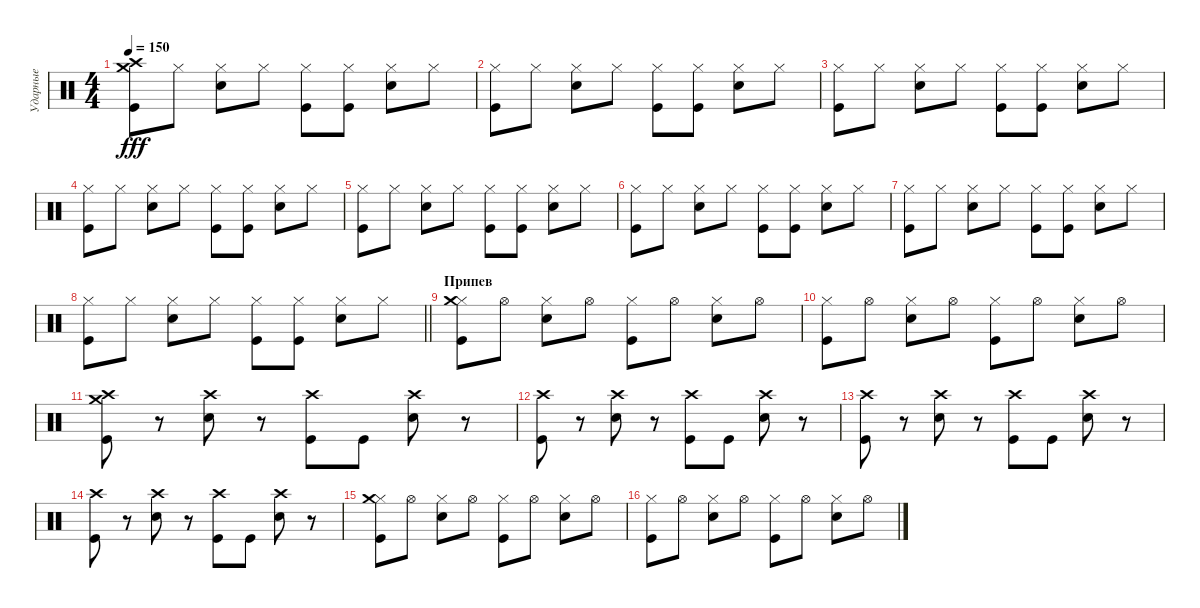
\track ("Ударные" "Ударные") {instrument percussion}
\staff {score}
\articulation defaults
\ts (4 4)
\tempo 150
\clef neutral
\ks c
("Crash medium (hit)" "Crash high (hit)" "Kick (hit)").8{dy fff} "Hi-Hat (closed)".8 ("Hi-Hat (closed)" "Electric Snare (hit)").8 "Hi-Hat (closed)".8 ("Hi-Hat (closed)" "Kick (hit)").8 ("Hi-Hat (closed)" "Kick (hit)").8 ("Hi-Hat (closed)" "Electric Snare (hit)").8 "Hi-Hat (closed)".8 |
("Hi-Hat (closed)" "Kick (hit)").8 "Hi-Hat (closed)".8 ("Hi-Hat (closed)" "Electric Snare (hit)").8 "Hi-Hat (closed)".8 ("Hi-Hat (closed)" "Kick (hit)").8 ("Hi-Hat (closed)" "Kick (hit)").8 ("Hi-Hat (closed)" "Electric Snare (hit)").8 "Hi-Hat (closed)".8 |
("Hi-Hat (closed)" "Kick (hit)").8 "Hi-Hat (closed)".8 ("Hi-Hat (closed)" "Electric Snare (hit)").8 "Hi-Hat (closed)".8 ("Hi-Hat (closed)" "Kick (hit)").8 ("Hi-Hat (closed)" "Kick (hit)").8 ("Hi-Hat (closed)" "Electric Snare (hit)").8 "Hi-Hat (closed)".8 |
("Hi-Hat (closed)" "Kick (hit)").8 "Hi-Hat (closed)".8 ("Hi-Hat (closed)" "Electric Snare (hit)").8 "Hi-Hat (closed)".8 ("Hi-Hat (closed)" "Kick (hit)").8 ("Hi-Hat (closed)" "Kick (hit)").8 ("Hi-Hat (closed)" "Electric Snare (hit)").8 "Hi-Hat (closed)".8 |
("Hi-Hat (closed)" "Kick (hit)").8 "Hi-Hat (closed)".8 ("Hi-Hat (closed)" "Electric Snare (hit)").8 "Hi-Hat (closed)".8 ("Hi-Hat (closed)" "Kick (hit)").8 ("Hi-Hat (closed)" "Kick (hit)").8 ("Hi-Hat (closed)" "Electric Snare (hit)").8 "Hi-Hat (closed)".8 |
("Hi-Hat (closed)" "Kick (hit)").8 "Hi-Hat (closed)".8 ("Hi-Hat (closed)" "Electric Snare (hit)").8 "Hi-Hat (closed)".8 ("Hi-Hat (closed)" "Kick (hit)").8 ("Hi-Hat (closed)" "Kick (hit)").8 ("Hi-Hat (closed)" "Electric Snare (hit)").8 "Hi-Hat (closed)".8 |
("Hi-Hat (closed)" "Kick (hit)").8 "Hi-Hat (closed)".8 ("Hi-Hat (closed)" "Electric Snare (hit)").8 "Hi-Hat (closed)".8 ("Hi-Hat (closed)" "Kick (hit)").8 ("Hi-Hat (closed)" "Kick (hit)").8 ("Hi-Hat (closed)" "Electric Snare (hit)").8 "Hi-Hat (closed)".8 |
\barLineRight lightlight
("Hi-Hat (closed)" "Kick (hit)").8 "Hi-Hat (closed)".8 ("Hi-Hat (closed)" "Electric Snare (hit)").8 "Hi-Hat (closed)".8 ("Hi-Hat (closed)" "Kick (hit)").8 ("Hi-Hat (closed)" "Kick (hit)").8 ("Hi-Hat (closed)" "Electric Snare (hit)").8 "Hi-Hat (closed)".8 |
\section ("" "Припев")
("Hi-Hat (closed)" "Kick (hit)" "Crash medium (hit)").8 "Hi-Hat (open)".8 ("Hi-Hat (closed)" "Electric Snare (hit)").8 "Hi-Hat (open)".8 ("Hi-Hat (closed)" "Kick (hit)").8 "Hi-Hat (open)".8 ("Hi-Hat (closed)" "Electric Snare (hit)").8 "Hi-Hat (open)".8 |
("Hi-Hat (closed)" "Kick (hit)").8 "Hi-Hat (open)".8 ("Hi-Hat (closed)" "Electric Snare (hit)").8 "Hi-Hat (open)".8 ("Hi-Hat (closed)" "Kick (hit)").8 "Hi-Hat (open)".8 ("Hi-Hat (closed)" "Electric Snare (hit)").8 "Hi-Hat (open)".8 |
("Crash high (hit)" "Kick (hit)" "Crash medium (hit)").8 r.8 ("Crash high (hit)" "Electric Snare (hit)").8 r.8 ("Crash high (hit)" "Kick (hit)").8 "Kick (hit)".8 ("Crash high (hit)" "Electric Snare (hit)").8 r.8 |
("Crash high (hit)" "Kick (hit)").8 r.8 ("Crash high (hit)" "Electric Snare (hit)").8 r.8 ("Crash high (hit)" "Kick (hit)").8 "Kick (hit)".8 ("Crash high (hit)" "Electric Snare (hit)").8 r.8 |
("Crash high (hit)" "Kick (hit)").8 r.8 ("Crash high (hit)" "Electric Snare (hit)").8 r.8 ("Crash high (hit)" "Kick (hit)").8 "Kick (hit)".8 ("Crash high (hit)" "Electric Snare (hit)").8 r.8 |
("Crash high (hit)" "Kick (hit)").8 r.8 ("Crash high (hit)" "Electric Snare (hit)").8 r.8 ("Crash high (hit)" "Kick (hit)").8 "Kick (hit)".8 ("Crash high (hit)" "Electric Snare (hit)").8 r.8 |
("Hi-Hat (closed)" "Kick (hit)" "Crash medium (hit)").8 "Hi-Hat (open)".8 ("Hi-Hat (closed)" "Electric Snare (hit)").8 "Hi-Hat (open)".8 ("Hi-Hat (closed)" "Kick (hit)").8 "Hi-Hat (open)".8 ("Hi-Hat (closed)" "Electric Snare (hit)").8 "Hi-Hat (open)".8 |
("Hi-Hat (closed)" "Kick (hit)").8 "Hi-Hat (open)".8 ("Hi-Hat (closed)" "Electric Snare (hit)").8 "Hi-Hat (open)".8 ("Hi-Hat (closed)" "Kick (hit)").8 "Hi-Hat (open)".8 ("Hi-Hat (closed)" "Electric Snare (hit)").8 "Hi-Hat (open)".8
